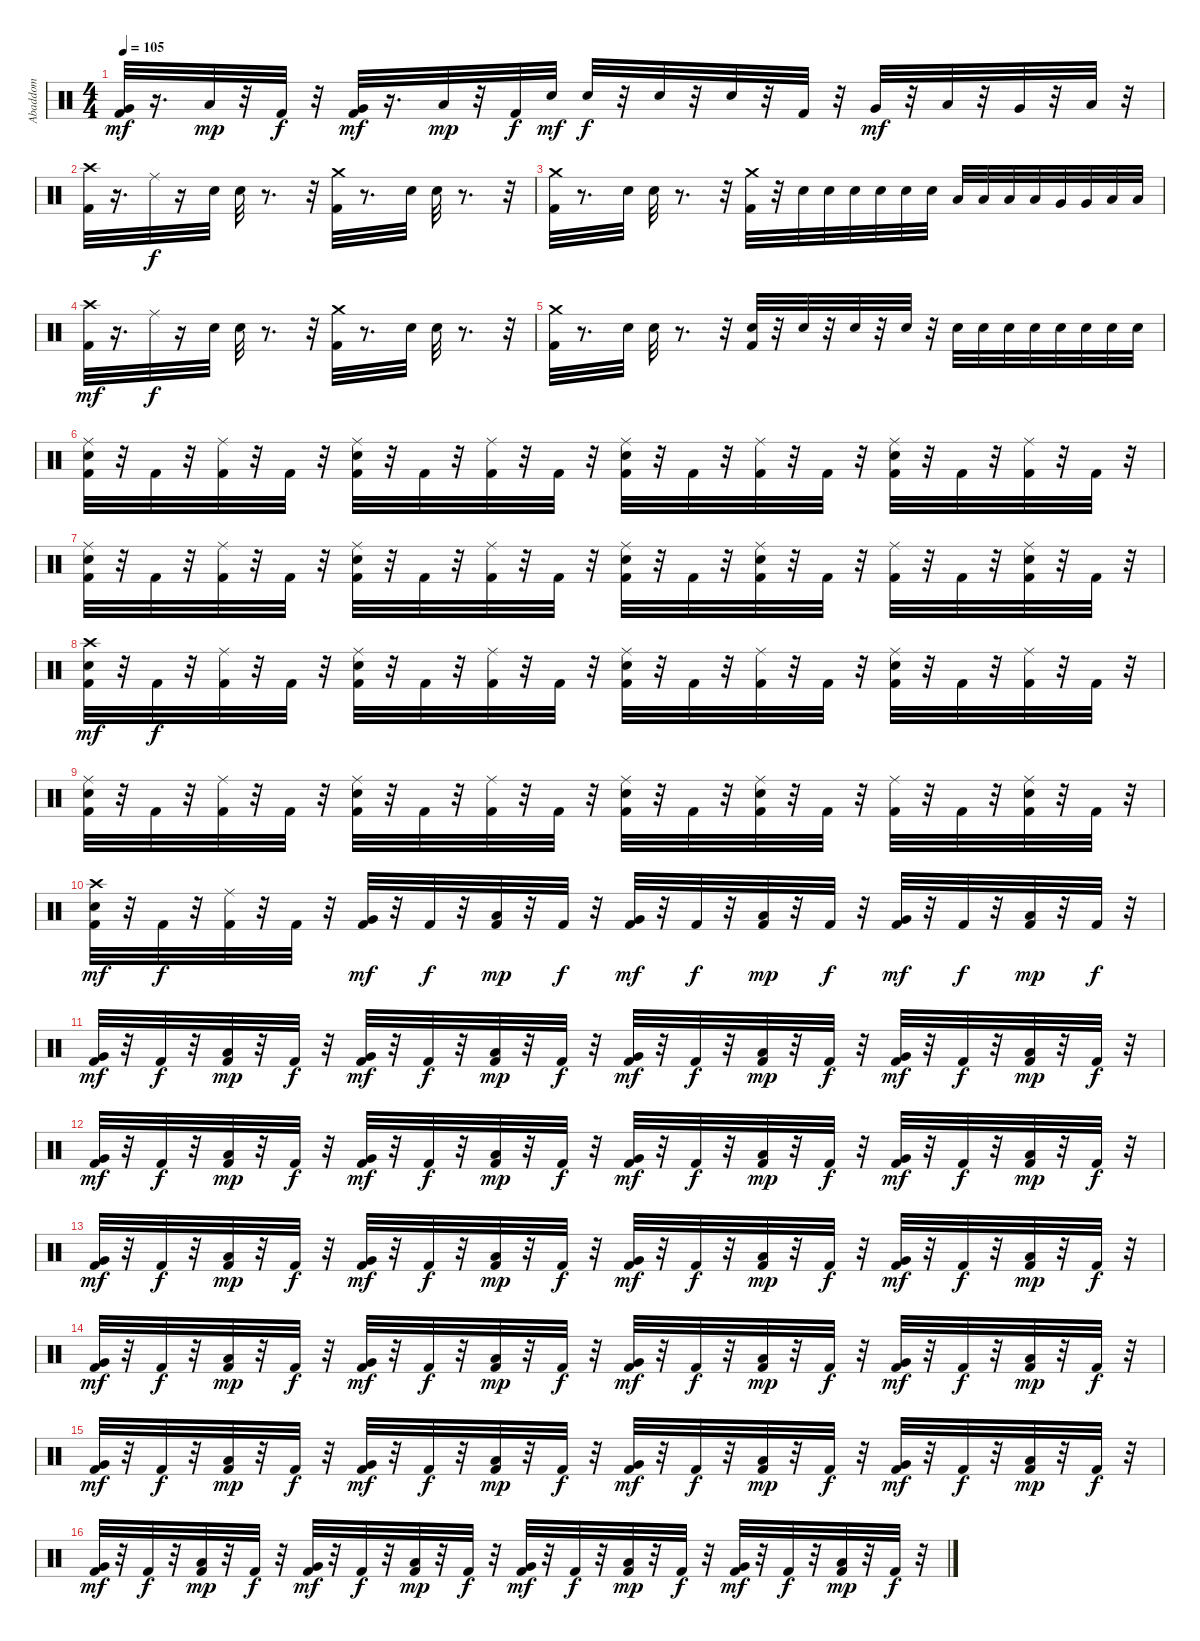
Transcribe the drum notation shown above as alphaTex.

\track ("Abaddom" "Abaddom") {instrument percussion}
\staff {score}
\articulation defaults
\ts (4 4)
\tempo 105
\clef neutral
\ks c
("Very Low Tom (hit)" "Kick (hit) 2").32{dy mf} r.16{d} "Low Floor Tom (hit)".32{dy mp} r.32 "Kick (hit) 2".32{dy f} r.32 ("Kick (hit) 2" "Very Low Tom (hit)").32{dy mf} r.16{d} "Low Floor Tom (hit)".32{dy mp} r.32 "Kick (hit) 2".32{dy f} "Snare (hit) 2".32{dy mf} "Snare (hit) 2".32{dy f} r.32 "Snare (hit) 2".32 r.32 "Snare (hit) 2".32 r.32 "Kick (hit) 2".32 r.32 "Very Low Tom (hit)".32{dy mf} r.32 "Low Tom (hit)".32 r.32 "Very Low Tom (hit)".32 r.32 "Low Floor Tom (hit)".32 r.32 |
("Crash high (hit)" "Kick (hit) 2").32 r.16{d} "Ride (middle)".32{dy f} r.16 "Snare (hit) 2".32 "Snare (hit) 2".32 r.8{d} r.32 ("Crash medium (hit)" "Kick (hit) 2").32 r.8{d} "Snare (hit) 2".32 "Snare (hit) 2".32 r.8{d} r.32 |
("Crash medium (hit)" "Kick (hit) 2").32 r.8{d} "Snare (hit) 2".32 "Snare (hit) 2".32 r.8{d} r.32 ("Crash medium (hit)" "Kick (hit) 2").32 r.32 "Snare (hit) 2".32 "Snare (hit) 2".32 "Snare (hit) 2".32 "Snare (hit) 2".32 "Snare (hit) 2".32 "Snare (hit) 2".32 "Low Tom (hit)".32 "Low Tom (hit)".32 "Low Tom (hit)".32 "Low Tom (hit)".32 "Very Low Tom (hit)".32 "Very Low Tom (hit)".32 "Low Floor Tom (hit)".32 "Low Floor Tom (hit)".32 |
("Kick (hit) 2" "Crash high (hit)").32{dy mf} r.16{d} "Ride (middle)".32{dy f} r.16 "Snare (hit) 2".32 "Snare (hit) 2".32 r.8{d} r.32 ("Crash medium (hit)" "Kick (hit) 2").32 r.8{d} "Snare (hit) 2".32 "Snare (hit) 2".32 r.8{d} r.32 |
("Kick (hit) 2" "Crash medium (hit)").32 r.8{d} "Snare (hit) 2".32 "Snare (hit) 2".32 r.8{d} r.32 ("Snare (hit) 2" "Kick (hit) 2").32 r.32 "Snare (hit) 2".32 r.32 "Snare (hit) 2".32 r.32 "Snare (hit) 2".32 r.32 "Snare (hit) 2".32 "Snare (hit) 2".32 "Snare (hit) 2".32 "Snare (hit) 2".32 "Snare (hit) 2".32 "Snare (hit) 2".32 "Snare (hit) 2".32 "Snare (hit) 2".32 |
("Snare (hit) 2" "Kick (hit) 2" "Ride (middle)").32 r.32 "Kick (hit) 2".32 r.32 ("Ride (middle)" "Kick (hit) 2").32 r.32 "Kick (hit) 2".32 r.32 ("Snare (hit) 2" "Ride (middle)" "Kick (hit) 2").32 r.32 "Kick (hit) 2".32 r.32 ("Ride (middle)" "Kick (hit) 2").32 r.32 "Kick (hit) 2".32 r.32 ("Snare (hit) 2" "Kick (hit) 2" "Ride (middle)").32 r.32 "Kick (hit) 2".32 r.32 ("Ride (middle)" "Kick (hit) 2").32 r.32 "Kick (hit) 2".32 r.32 ("Ride (middle)" "Snare (hit) 2" "Kick (hit) 2").32 r.32 "Kick (hit) 2".32 r.32 ("Kick (hit) 2" "Ride (middle)").32 r.32 "Kick (hit) 2".32 r.32 |
("Snare (hit) 2" "Ride (middle)" "Kick (hit) 2").32 r.32 "Kick (hit) 2".32 r.32 ("Kick (hit) 2" "Ride (middle)").32 r.32 "Kick (hit) 2".32 r.32 ("Snare (hit) 2" "Kick (hit) 2" "Ride (middle)").32 r.32 "Kick (hit) 2".32 r.32 ("Kick (hit) 2" "Ride (middle)").32 r.32 "Kick (hit) 2".32 r.32 ("Ride (middle)" "Snare (hit) 2" "Kick (hit) 2").32 r.32 "Kick (hit) 2".32 r.32 ("Ride (middle)" "Snare (hit) 2" "Kick (hit) 2").32 r.32 "Kick (hit) 2".32 r.32 ("Kick (hit) 2" "Ride (middle)").32 r.32 "Kick (hit) 2".32 r.32 ("Kick (hit) 2" "Snare (hit) 2" "Ride (middle)").32 r.32 "Kick (hit) 2".32 r.32 |
("Crash high (hit)" "Snare (hit) 2" "Kick (hit) 2").32{dy mf} r.32 "Kick (hit) 2".32{dy f} r.32 ("Kick (hit) 2" "Ride (middle)").32 r.32 "Kick (hit) 2".32 r.32 ("Ride (middle)" "Snare (hit) 2" "Kick (hit) 2").32 r.32 "Kick (hit) 2".32 r.32 ("Kick (hit) 2" "Ride (middle)").32 r.32 "Kick (hit) 2".32 r.32 ("Snare (hit) 2" "Kick (hit) 2" "Ride (middle)").32 r.32 "Kick (hit) 2".32 r.32 ("Kick (hit) 2" "Ride (middle)").32 r.32 "Kick (hit) 2".32 r.32 ("Ride (middle)" "Snare (hit) 2" "Kick (hit) 2").32 r.32 "Kick (hit) 2".32 r.32 ("Ride (middle)" "Kick (hit) 2").32 r.32 "Kick (hit) 2".32 r.32 |
("Kick (hit) 2" "Ride (middle)" "Snare (hit) 2").32 r.32 "Kick (hit) 2".32 r.32 ("Kick (hit) 2" "Ride (middle)").32 r.32 "Kick (hit) 2".32 r.32 ("Snare (hit) 2" "Kick (hit) 2" "Ride (middle)").32 r.32 "Kick (hit) 2".32 r.32 ("Kick (hit) 2" "Ride (middle)").32 r.32 "Kick (hit) 2".32 r.32 ("Ride (middle)" "Snare (hit) 2" "Kick (hit) 2").32 r.32 "Kick (hit) 2".32 r.32 ("Ride (middle)" "Snare (hit) 2" "Kick (hit) 2").32 r.32 "Kick (hit) 2".32 r.32 ("Kick (hit) 2" "Ride (middle)").32 r.32 "Kick (hit) 2".32 r.32 ("Snare (hit) 2" "Kick (hit) 2" "Ride (middle)").32 r.32 "Kick (hit) 2".32 r.32 |
("Crash high (hit)" "Snare (hit) 2" "Kick (hit) 2").32{dy mf} r.32 "Kick (hit) 2".32{dy f} r.32 ("Kick (hit) 2" "Ride (middle)").32 r.32 "Kick (hit) 2".32 r.32 ("Very Low Tom (hit)" "Kick (hit) 2").32{dy mf} r.32 "Kick (hit) 2".32{dy f} r.32 ("Low Floor Tom (hit)" "Kick (hit) 2").32{dy mp} r.32 "Kick (hit) 2".32{dy f} r.32 ("Very Low Tom (hit)" "Kick (hit) 2").32{dy mf} r.32 "Kick (hit) 2".32{dy f} r.32 ("Low Floor Tom (hit)" "Kick (hit) 2").32{dy mp} r.32 "Kick (hit) 2".32{dy f} r.32 ("Very Low Tom (hit)" "Kick (hit) 2").32{dy mf} r.32 "Kick (hit) 2".32{dy f} r.32 ("Low Floor Tom (hit)" "Kick (hit) 2").32{dy mp} r.32 "Kick (hit) 2".32{dy f} r.32 |
("Kick (hit) 2" "Very Low Tom (hit)").32{dy mf} r.32 "Kick (hit) 2".32{dy f} r.32 ("Kick (hit) 2" "Low Floor Tom (hit)").32{dy mp} r.32 "Kick (hit) 2".32{dy f} r.32 ("Very Low Tom (hit)" "Kick (hit) 2").32{dy mf} r.32 "Kick (hit) 2".32{dy f} r.32 ("Low Floor Tom (hit)" "Kick (hit) 2").32{dy mp} r.32 "Kick (hit) 2".32{dy f} r.32 ("Very Low Tom (hit)" "Kick (hit) 2").32{dy mf} r.32 "Kick (hit) 2".32{dy f} r.32 ("Low Floor Tom (hit)" "Kick (hit) 2").32{dy mp} r.32 "Kick (hit) 2".32{dy f} r.32 ("Very Low Tom (hit)" "Kick (hit) 2").32{dy mf} r.32 "Kick (hit) 2".32{dy f} r.32 ("Low Floor Tom (hit)" "Kick (hit) 2").32{dy mp} r.32 "Kick (hit) 2".32{dy f} r.32 |
("Kick (hit) 2" "Very Low Tom (hit)").32{dy mf} r.32 "Kick (hit) 2".32{dy f} r.32 ("Kick (hit) 2" "Low Floor Tom (hit)").32{dy mp} r.32 "Kick (hit) 2".32{dy f} r.32 ("Very Low Tom (hit)" "Kick (hit) 2").32{dy mf} r.32 "Kick (hit) 2".32{dy f} r.32 ("Low Floor Tom (hit)" "Kick (hit) 2").32{dy mp} r.32 "Kick (hit) 2".32{dy f} r.32 ("Very Low Tom (hit)" "Kick (hit) 2").32{dy mf} r.32 "Kick (hit) 2".32{dy f} r.32 ("Low Floor Tom (hit)" "Kick (hit) 2").32{dy mp} r.32 "Kick (hit) 2".32{dy f} r.32 ("Very Low Tom (hit)" "Kick (hit) 2").32{dy mf} r.32 "Kick (hit) 2".32{dy f} r.32 ("Low Floor Tom (hit)" "Kick (hit) 2").32{dy mp} r.32 "Kick (hit) 2".32{dy f} r.32 |
("Kick (hit) 2" "Very Low Tom (hit)").32{dy mf} r.32 "Kick (hit) 2".32{dy f} r.32 ("Kick (hit) 2" "Low Floor Tom (hit)").32{dy mp} r.32 "Kick (hit) 2".32{dy f} r.32 ("Very Low Tom (hit)" "Kick (hit) 2").32{dy mf} r.32 "Kick (hit) 2".32{dy f} r.32 ("Low Floor Tom (hit)" "Kick (hit) 2").32{dy mp} r.32 "Kick (hit) 2".32{dy f} r.32 ("Very Low Tom (hit)" "Kick (hit) 2").32{dy mf} r.32 "Kick (hit) 2".32{dy f} r.32 ("Low Floor Tom (hit)" "Kick (hit) 2").32{dy mp} r.32 "Kick (hit) 2".32{dy f} r.32 ("Very Low Tom (hit)" "Kick (hit) 2").32{dy mf} r.32 "Kick (hit) 2".32{dy f} r.32 ("Low Floor Tom (hit)" "Kick (hit) 2").32{dy mp} r.32 "Kick (hit) 2".32{dy f} r.32 |
("Kick (hit) 2" "Very Low Tom (hit)").32{dy mf} r.32 "Kick (hit) 2".32{dy f} r.32 ("Kick (hit) 2" "Low Floor Tom (hit)").32{dy mp} r.32 "Kick (hit) 2".32{dy f} r.32 ("Very Low Tom (hit)" "Kick (hit) 2").32{dy mf} r.32 "Kick (hit) 2".32{dy f} r.32 ("Low Floor Tom (hit)" "Kick (hit) 2").32{dy mp} r.32 "Kick (hit) 2".32{dy f} r.32 ("Very Low Tom (hit)" "Kick (hit) 2").32{dy mf} r.32 "Kick (hit) 2".32{dy f} r.32 ("Low Floor Tom (hit)" "Kick (hit) 2").32{dy mp} r.32 "Kick (hit) 2".32{dy f} r.32 ("Very Low Tom (hit)" "Kick (hit) 2").32{dy mf} r.32 "Kick (hit) 2".32{dy f} r.32 ("Low Floor Tom (hit)" "Kick (hit) 2").32{dy mp} r.32 "Kick (hit) 2".32{dy f} r.32 |
("Kick (hit) 2" "Very Low Tom (hit)").32{dy mf} r.32 "Kick (hit) 2".32{dy f} r.32 ("Kick (hit) 2" "Low Floor Tom (hit)").32{dy mp} r.32 "Kick (hit) 2".32{dy f} r.32 ("Very Low Tom (hit)" "Kick (hit) 2").32{dy mf} r.32 "Kick (hit) 2".32{dy f} r.32 ("Low Floor Tom (hit)" "Kick (hit) 2").32{dy mp} r.32 "Kick (hit) 2".32{dy f} r.32 ("Very Low Tom (hit)" "Kick (hit) 2").32{dy mf} r.32 "Kick (hit) 2".32{dy f} r.32 ("Low Floor Tom (hit)" "Kick (hit) 2").32{dy mp} r.32 "Kick (hit) 2".32{dy f} r.32 ("Very Low Tom (hit)" "Kick (hit) 2").32{dy mf} r.32 "Kick (hit) 2".32{dy f} r.32 ("Low Floor Tom (hit)" "Kick (hit) 2").32{dy mp} r.32 "Kick (hit) 2".32{dy f} r.32 |
("Kick (hit) 2" "Very Low Tom (hit)").32{dy mf} r.32 "Kick (hit) 2".32{dy f} r.32 ("Kick (hit) 2" "Low Floor Tom (hit)").32{dy mp} r.32 "Kick (hit) 2".32{dy f} r.32 ("Very Low Tom (hit)" "Kick (hit) 2").32{dy mf} r.32 "Kick (hit) 2".32{dy f} r.32 ("Low Floor Tom (hit)" "Kick (hit) 2").32{dy mp} r.32 "Kick (hit) 2".32{dy f} r.32 ("Very Low Tom (hit)" "Kick (hit) 2").32{dy mf} r.32 "Kick (hit) 2".32{dy f} r.32 ("Low Floor Tom (hit)" "Kick (hit) 2").32{dy mp} r.32 "Kick (hit) 2".32{dy f} r.32 ("Very Low Tom (hit)" "Kick (hit) 2").32{dy mf} r.32 "Kick (hit) 2".32{dy f} r.32 ("Low Floor Tom (hit)" "Kick (hit) 2").32{dy mp} r.32 "Kick (hit) 2".32{dy f} r.32
